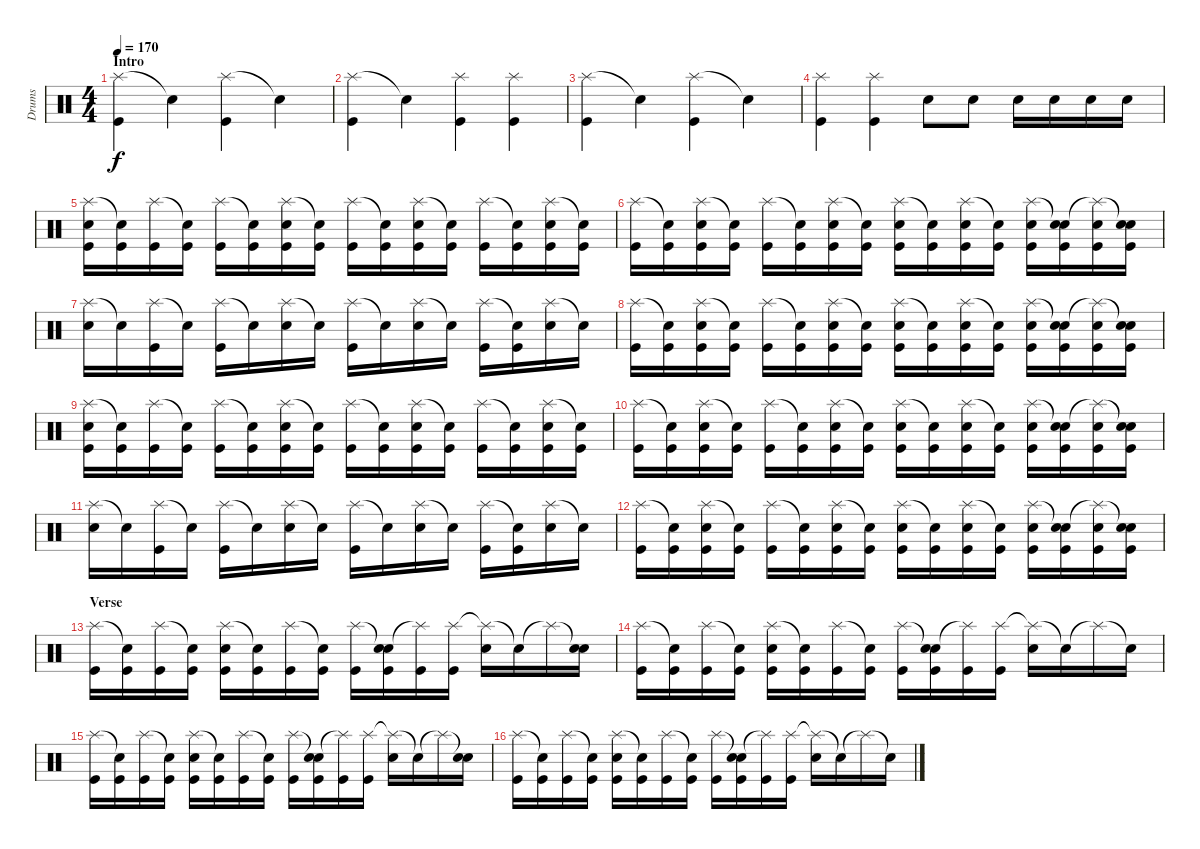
\track ("Drums" "Drums") {instrument percussion}
\staff {score}
\articulation defaults
\ts (4 4)
\section ("" "Intro")
\tempo 170
\clef neutral
\ks c
("Splash (hit)" "Kick (hit)").4{dy f} "Snare (hit)"{t}.4 ("Splash (hit)" "Kick (hit)").4 "Snare (hit)"{t}.4 |
("Splash (hit)" "Kick (hit)").4 "Snare (hit)"{t}.4 ("Splash (hit)" "Kick (hit)").4 ("Splash (hit)" "Kick (hit)").4 |
("Splash (hit)" "Kick (hit)").4 "Snare (hit)"{t}.4 ("Splash (hit)" "Kick (hit)").4 "Snare (hit)"{t}.4 |
("Splash (hit)" "Kick (hit)").4 ("Splash (hit)" "Kick (hit)").4 "Electric Snare (hit)".8 "Electric Snare (hit)".8 "Electric Snare (hit)".16 "Electric Snare (hit)".16 "Electric Snare (hit)".16 "Electric Snare (hit)".16 |
("Splash (hit)" "Electric Snare (hit)" "Kick (hit)").16 ("Snare (hit)"{t} "Kick (hit)").16 ("Splash (hit)" "Kick (hit)").16 ("Snare (hit)"{t} "Kick (hit)").16 ("Splash (hit)" "Kick (hit)").16 ("Snare (hit)"{t} "Kick (hit)").16 ("Splash (hit)" "Electric Snare (hit)" "Kick (hit)").16 ("Snare (hit)"{t} "Kick (hit)").16 ("Splash (hit)" "Kick (hit)").16 ("Snare (hit)"{t} "Kick (hit)").16 ("Splash (hit)" "Electric Snare (hit)" "Kick (hit)").16 ("Snare (hit)"{t} "Kick (hit)").16 ("Splash (hit)" "Kick (hit)").16 ("Snare (hit)"{t} "Kick (hit)").16 ("Splash (hit)" "Electric Snare (hit)" "Kick (hit)").16 ("Snare (hit)"{t} "Kick (hit)").16 |
("Splash (hit)" "Kick (hit)").16 ("Snare (hit)"{t} "Kick (hit)").16 ("Splash (hit)" "Electric Snare (hit)" "Kick (hit)").16 ("Snare (hit)"{t} "Kick (hit)").16 ("Splash (hit)" "Kick (hit)").16 ("Snare (hit)"{t} "Kick (hit)").16 ("Splash (hit)" "Electric Snare (hit)" "Kick (hit)").16 ("Snare (hit)"{t} "Kick (hit)").16 ("Splash (hit)" "Electric Snare (hit)" "Kick (hit)").16 ("Snare (hit)"{t} "Kick (hit)").16 ("Splash (hit)" "Electric Snare (hit)" "Kick (hit)").16 ("Snare (hit)"{t} "Kick (hit)").16 ("Splash (hit)" "Electric Snare (hit)" "Kick (hit)").16 ("Snare (hit)"{t} "Electric Snare (hit)" "Kick (hit)").16 ("Splash (hit)"{t} "Electric Snare (hit)" "Kick (hit)").16 ("Snare (hit)"{t} "Electric Snare (hit)" "Kick (hit)").16 |
("Splash (hit)" "Electric Snare (hit)").16 "Snare (hit)"{t}.16 ("Splash (hit)" "Kick (hit)").16 "Snare (hit)"{t}.16 ("Splash (hit)" "Kick (hit)").16 "Snare (hit)"{t}.16 ("Splash (hit)" "Electric Snare (hit)").16 "Snare (hit)"{t}.16 ("Splash (hit)" "Kick (hit)").16 "Snare (hit)"{t}.16 ("Splash (hit)" "Electric Snare (hit)").16 "Snare (hit)"{t}.16 ("Splash (hit)" "Kick (hit)").16 ("Snare (hit)"{t} "Kick (hit)").16 ("Splash (hit)" "Electric Snare (hit)").16 "Snare (hit)"{t}.16 |
("Splash (hit)" "Kick (hit)").16 ("Snare (hit)"{t} "Kick (hit)").16 ("Splash (hit)" "Electric Snare (hit)" "Kick (hit)").16 ("Snare (hit)"{t} "Kick (hit)").16 ("Splash (hit)" "Kick (hit)").16 ("Snare (hit)"{t} "Kick (hit)").16 ("Splash (hit)" "Electric Snare (hit)" "Kick (hit)").16 ("Snare (hit)"{t} "Kick (hit)").16 ("Splash (hit)" "Electric Snare (hit)" "Kick (hit)").16 ("Snare (hit)"{t} "Kick (hit)").16 ("Splash (hit)" "Electric Snare (hit)" "Kick (hit)").16 ("Snare (hit)"{t} "Kick (hit)").16 ("Splash (hit)" "Electric Snare (hit)" "Kick (hit)").16 ("Snare (hit)"{t} "Electric Snare (hit)" "Kick (hit)").16 ("Splash (hit)"{t} "Electric Snare (hit)" "Kick (hit)").16 ("Snare (hit)"{t} "Electric Snare (hit)" "Kick (hit)").16 |
("Splash (hit)" "Electric Snare (hit)" "Kick (hit)").16 ("Snare (hit)"{t} "Kick (hit)").16 ("Splash (hit)" "Kick (hit)").16 ("Snare (hit)"{t} "Kick (hit)").16 ("Splash (hit)" "Kick (hit)").16 ("Snare (hit)"{t} "Kick (hit)").16 ("Splash (hit)" "Electric Snare (hit)" "Kick (hit)").16 ("Snare (hit)"{t} "Kick (hit)").16 ("Splash (hit)" "Kick (hit)").16 ("Snare (hit)"{t} "Kick (hit)").16 ("Splash (hit)" "Electric Snare (hit)" "Kick (hit)").16 ("Snare (hit)"{t} "Kick (hit)").16 ("Splash (hit)" "Kick (hit)").16 ("Snare (hit)"{t} "Kick (hit)").16 ("Splash (hit)" "Electric Snare (hit)" "Kick (hit)").16 ("Snare (hit)"{t} "Kick (hit)").16 |
("Splash (hit)" "Kick (hit)").16 ("Snare (hit)"{t} "Kick (hit)").16 ("Splash (hit)" "Electric Snare (hit)" "Kick (hit)").16 ("Snare (hit)"{t} "Kick (hit)").16 ("Splash (hit)" "Kick (hit)").16 ("Snare (hit)"{t} "Kick (hit)").16 ("Splash (hit)" "Electric Snare (hit)" "Kick (hit)").16 ("Snare (hit)"{t} "Kick (hit)").16 ("Splash (hit)" "Electric Snare (hit)" "Kick (hit)").16 ("Snare (hit)"{t} "Kick (hit)").16 ("Splash (hit)" "Electric Snare (hit)" "Kick (hit)").16 ("Snare (hit)"{t} "Kick (hit)").16 ("Splash (hit)" "Electric Snare (hit)" "Kick (hit)").16 ("Snare (hit)"{t} "Electric Snare (hit)" "Kick (hit)").16 ("Splash (hit)"{t} "Electric Snare (hit)" "Kick (hit)").16 ("Snare (hit)"{t} "Electric Snare (hit)" "Kick (hit)").16 |
("Splash (hit)" "Electric Snare (hit)").16 "Snare (hit)"{t}.16 ("Splash (hit)" "Kick (hit)").16 "Snare (hit)"{t}.16 ("Splash (hit)" "Kick (hit)").16 "Snare (hit)"{t}.16 ("Splash (hit)" "Electric Snare (hit)").16 "Snare (hit)"{t}.16 ("Splash (hit)" "Kick (hit)").16 "Snare (hit)"{t}.16 ("Splash (hit)" "Electric Snare (hit)").16 "Snare (hit)"{t}.16 ("Splash (hit)" "Kick (hit)").16 ("Snare (hit)"{t} "Kick (hit)").16 ("Splash (hit)" "Electric Snare (hit)").16 "Snare (hit)"{t}.16 |
("Splash (hit)" "Kick (hit)").16 ("Snare (hit)"{t} "Kick (hit)").16 ("Splash (hit)" "Electric Snare (hit)" "Kick (hit)").16 ("Snare (hit)"{t} "Kick (hit)").16 ("Splash (hit)" "Kick (hit)").16 ("Snare (hit)"{t} "Kick (hit)").16 ("Splash (hit)" "Electric Snare (hit)" "Kick (hit)").16 ("Snare (hit)"{t} "Kick (hit)").16 ("Splash (hit)" "Electric Snare (hit)" "Kick (hit)").16 ("Snare (hit)"{t} "Kick (hit)").16 ("Splash (hit)" "Electric Snare (hit)" "Kick (hit)").16 ("Snare (hit)"{t} "Kick (hit)").16 ("Splash (hit)" "Electric Snare (hit)" "Kick (hit)").16 ("Snare (hit)"{t} "Electric Snare (hit)" "Kick (hit)").16 ("Splash (hit)"{t} "Electric Snare (hit)" "Kick (hit)").16 ("Snare (hit)"{t} "Electric Snare (hit)" "Kick (hit)").16 |
\section ("" "Verse")
("Splash (hit)" "Kick (hit)").16 ("Snare (hit)"{t} "Kick (hit)").16 ("Splash (hit)" "Kick (hit)").16 ("Snare (hit)"{t} "Kick (hit)").16 ("Splash (hit)" "Electric Snare (hit)" "Kick (hit)").16 ("Snare (hit)"{t} "Kick (hit)").16 ("Splash (hit)" "Kick (hit)").16 ("Snare (hit)"{t} "Kick (hit)").16 ("Splash (hit)" "Kick (hit)").16 ("Snare (hit)"{t} "Electric Snare (hit)" "Kick (hit)").16 ("Splash (hit)"{t} "Kick (hit)").16 ("Splash (hit)" "Kick (hit)").16 ("Splash (hit)"{t} "Electric Snare (hit)").16 "Snare (hit)"{t}.16 "Splash (hit)"{t}.16 ("Snare (hit)"{t} "Electric Snare (hit)").16 |
("Splash (hit)" "Kick (hit)").16 ("Snare (hit)"{t} "Kick (hit)").16 ("Splash (hit)" "Kick (hit)").16 ("Snare (hit)"{t} "Kick (hit)").16 ("Splash (hit)" "Electric Snare (hit)" "Kick (hit)").16 ("Snare (hit)"{t} "Kick (hit)").16 ("Splash (hit)" "Kick (hit)").16 ("Snare (hit)"{t} "Kick (hit)").16 ("Splash (hit)" "Kick (hit)").16 ("Snare (hit)"{t} "Electric Snare (hit)" "Kick (hit)").16 ("Splash (hit)"{t} "Kick (hit)").16 ("Splash (hit)" "Kick (hit)").16 ("Splash (hit)"{t} "Electric Snare (hit)").16 "Snare (hit)"{t}.16 "Splash (hit)"{t}.16 "Snare (hit)"{t}.16 |
("Splash (hit)" "Kick (hit)").16 ("Snare (hit)"{t} "Kick (hit)").16 ("Splash (hit)" "Kick (hit)").16 ("Snare (hit)"{t} "Kick (hit)").16 ("Splash (hit)" "Electric Snare (hit)" "Kick (hit)").16 ("Snare (hit)"{t} "Kick (hit)").16 ("Splash (hit)" "Kick (hit)").16 ("Snare (hit)"{t} "Kick (hit)").16 ("Splash (hit)" "Kick (hit)").16 ("Snare (hit)"{t} "Electric Snare (hit)" "Kick (hit)").16 ("Splash (hit)"{t} "Kick (hit)").16 ("Splash (hit)" "Kick (hit)").16 ("Splash (hit)"{t} "Electric Snare (hit)").16 "Snare (hit)"{t}.16 "Splash (hit)"{t}.16 ("Snare (hit)"{t} "Electric Snare (hit)").16 |
("Splash (hit)" "Kick (hit)").16 ("Snare (hit)"{t} "Kick (hit)").16 ("Splash (hit)" "Kick (hit)").16 ("Snare (hit)"{t} "Kick (hit)").16 ("Splash (hit)" "Electric Snare (hit)" "Kick (hit)").16 ("Snare (hit)"{t} "Kick (hit)").16 ("Splash (hit)" "Kick (hit)").16 ("Snare (hit)"{t} "Kick (hit)").16 ("Splash (hit)" "Kick (hit)").16 ("Snare (hit)"{t} "Electric Snare (hit)" "Kick (hit)").16 ("Splash (hit)"{t} "Kick (hit)").16 ("Splash (hit)" "Kick (hit)").16 ("Splash (hit)"{t} "Electric Snare (hit)").16 "Snare (hit)"{t}.16 "Splash (hit)"{t}.16 "Snare (hit)"{t}.16
